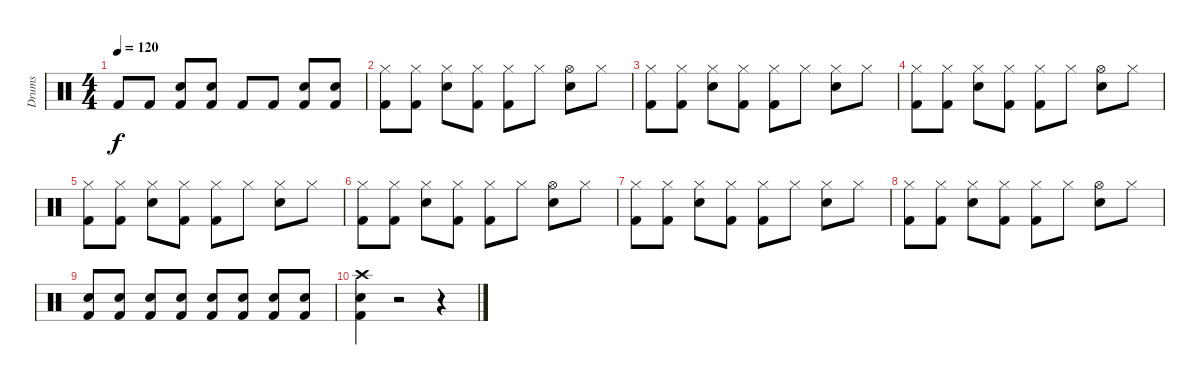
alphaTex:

\track ("Drums " "Drums ") {instrument percussion}
\staff {score}
\articulation defaults
\ts (4 4)
\tempo 120
\clef neutral
\ks c "Kick (hit) 2".8{dy f} "Kick (hit) 2".8
("Kick (hit) 2" "Electric Snare (hit)").8 ("Kick (hit) 2" "Electric Snare (hit)").8 "Kick (hit) 2".8 "Kick (hit) 2".8 ("Kick (hit) 2" "Electric Snare (hit)").8 ("Kick (hit) 2" "Electric Snare (hit)").8 |
("Kick (hit) 2" "Hi-Hat (closed)").8 ("Kick (hit) 2" "Hi-Hat (closed)").8 ("Electric Snare (hit)" "Hi-Hat (closed)").8 ("Kick (hit) 2" "Hi-Hat (closed)").8 ("Kick (hit) 2" "Hi-Hat (closed)").8 "Hi-Hat (closed)".8 ("Electric Snare (hit)" "Hi-Hat (open)").8 "Hi-Hat (closed)".8 |
("Kick (hit) 2" "Hi-Hat (closed)").8 ("Kick (hit) 2" "Hi-Hat (closed)").8 ("Electric Snare (hit)" "Hi-Hat (closed)").8 ("Kick (hit) 2" "Hi-Hat (closed)").8 ("Kick (hit) 2" "Hi-Hat (closed)").8 "Hi-Hat (closed)".8 ("Electric Snare (hit)" "Hi-Hat (closed)").8 "Hi-Hat (closed)".8 |
("Kick (hit) 2" "Hi-Hat (closed)").8 ("Kick (hit) 2" "Hi-Hat (closed)").8 ("Electric Snare (hit)" "Hi-Hat (closed)").8 ("Kick (hit) 2" "Hi-Hat (closed)").8 ("Kick (hit) 2" "Hi-Hat (closed)").8 "Hi-Hat (closed)".8 ("Electric Snare (hit)" "Hi-Hat (open)").8 "Hi-Hat (closed)".8 |
("Kick (hit) 2" "Hi-Hat (closed)").8 ("Kick (hit) 2" "Hi-Hat (closed)").8 ("Electric Snare (hit)" "Hi-Hat (closed)").8 ("Kick (hit) 2" "Hi-Hat (closed)").8 ("Kick (hit) 2" "Hi-Hat (closed)").8 "Hi-Hat (closed)".8 ("Electric Snare (hit)" "Hi-Hat (closed)").8 "Hi-Hat (closed)".8 |
("Kick (hit) 2" "Hi-Hat (closed)").8 ("Kick (hit) 2" "Hi-Hat (closed)").8 ("Electric Snare (hit)" "Hi-Hat (closed)").8 ("Kick (hit) 2" "Hi-Hat (closed)").8 ("Kick (hit) 2" "Hi-Hat (closed)").8 "Hi-Hat (closed)".8 ("Electric Snare (hit)" "Hi-Hat (open)").8 "Hi-Hat (closed)".8 |
("Kick (hit) 2" "Hi-Hat (closed)").8 ("Kick (hit) 2" "Hi-Hat (closed)").8 ("Electric Snare (hit)" "Hi-Hat (closed)").8 ("Kick (hit) 2" "Hi-Hat (closed)").8 ("Kick (hit) 2" "Hi-Hat (closed)").8 "Hi-Hat (closed)".8 ("Electric Snare (hit)" "Hi-Hat (closed)").8 "Hi-Hat (closed)".8 |
("Kick (hit) 2" "Hi-Hat (closed)").8 ("Kick (hit) 2" "Hi-Hat (closed)").8 ("Electric Snare (hit)" "Hi-Hat (closed)").8 ("Kick (hit) 2" "Hi-Hat (closed)").8 ("Kick (hit) 2" "Hi-Hat (closed)").8 "Hi-Hat (closed)".8 ("Electric Snare (hit)" "Hi-Hat (open)").8 "Hi-Hat (closed)".8 |
("Kick (hit) 2" "Electric Snare (hit)").8 ("Kick (hit) 2" "Electric Snare (hit)").8 ("Kick (hit) 2" "Electric Snare (hit)").8 ("Kick (hit) 2" "Electric Snare (hit)").8 ("Kick (hit) 2" "Electric Snare (hit)").8 ("Kick (hit) 2" "Electric Snare (hit)").8 ("Kick (hit) 2" "Electric Snare (hit)").8 ("Kick (hit) 2" "Electric Snare (hit)").8 |
("Crash high (hit)" "Electric Snare (hit)" "Kick (hit) 2").4 r.2 r.4
